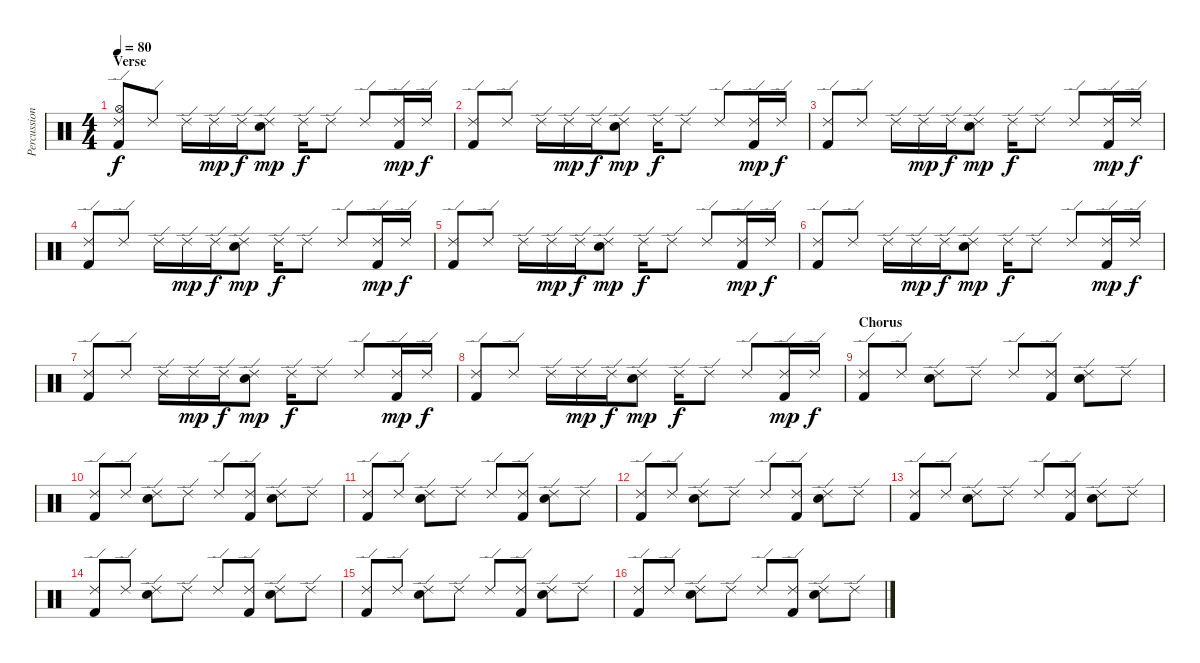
\track ("Percussion" "Percussion") {instrument percussion}
\staff {score}
\articulation defaults
\ts (4 4)
\section ("" "Verse")
\tempo 80
\clef neutral
\ks c
("Ride (edge) 2" "Hi-Hat (open)" "Kick (hit) 2").8{dy f} "Ride (edge) 2".8 "Ride (edge) 2".16 "Ride (edge) 2".16{dy mp} "Ride (edge) 2".16{dy f} ("Ride (edge) 2" "Electric Snare (hit)").8{dy mp} "Ride (edge) 2".16{dy f} "Ride (edge) 2".8 "Ride (edge) 2".8 ("Ride (edge) 2" "Kick (hit) 2").16{dy mp} "Ride (edge) 2".16{dy f} |
("Ride (edge) 2" "Kick (hit) 2").8 "Ride (edge) 2".8 "Ride (edge) 2".16 "Ride (edge) 2".16{dy mp} "Ride (edge) 2".16{dy f} ("Ride (edge) 2" "Electric Snare (hit)").8{dy mp} "Ride (edge) 2".16{dy f} "Ride (edge) 2".8 "Ride (edge) 2".8 ("Ride (edge) 2" "Kick (hit) 2").16{dy mp} "Ride (edge) 2".16{dy f} |
("Ride (edge) 2" "Kick (hit) 2").8 "Ride (edge) 2".8 "Ride (edge) 2".16 "Ride (edge) 2".16{dy mp} "Ride (edge) 2".16{dy f} ("Ride (edge) 2" "Electric Snare (hit)").8{dy mp} "Ride (edge) 2".16{dy f} "Ride (edge) 2".8 "Ride (edge) 2".8 ("Ride (edge) 2" "Kick (hit) 2").16{dy mp} "Ride (edge) 2".16{dy f} |
("Ride (edge) 2" "Kick (hit) 2").8 "Ride (edge) 2".8 "Ride (edge) 2".16 "Ride (edge) 2".16{dy mp} "Ride (edge) 2".16{dy f} ("Ride (edge) 2" "Electric Snare (hit)").8{dy mp} "Ride (edge) 2".16{dy f} "Ride (edge) 2".8 "Ride (edge) 2".8 ("Ride (edge) 2" "Kick (hit) 2").16{dy mp} "Ride (edge) 2".16{dy f} |
("Ride (edge) 2" "Kick (hit) 2").8 "Ride (edge) 2".8 "Ride (edge) 2".16 "Ride (edge) 2".16{dy mp} "Ride (edge) 2".16{dy f} ("Ride (edge) 2" "Electric Snare (hit)").8{dy mp} "Ride (edge) 2".16{dy f} "Ride (edge) 2".8 "Ride (edge) 2".8 ("Ride (edge) 2" "Kick (hit) 2").16{dy mp} "Ride (edge) 2".16{dy f} |
("Ride (edge) 2" "Kick (hit) 2").8 "Ride (edge) 2".8 "Ride (edge) 2".16 "Ride (edge) 2".16{dy mp} "Ride (edge) 2".16{dy f} ("Ride (edge) 2" "Electric Snare (hit)").8{dy mp} "Ride (edge) 2".16{dy f} "Ride (edge) 2".8 "Ride (edge) 2".8 ("Ride (edge) 2" "Kick (hit) 2").16{dy mp} "Ride (edge) 2".16{dy f} |
("Ride (edge) 2" "Kick (hit) 2").8 "Ride (edge) 2".8 "Ride (edge) 2".16 "Ride (edge) 2".16{dy mp} "Ride (edge) 2".16{dy f} ("Ride (edge) 2" "Electric Snare (hit)").8{dy mp} "Ride (edge) 2".16{dy f} "Ride (edge) 2".8 "Ride (edge) 2".8 ("Ride (edge) 2" "Kick (hit) 2").16{dy mp} "Ride (edge) 2".16{dy f} |
("Ride (edge) 2" "Kick (hit) 2").8 "Ride (edge) 2".8 "Ride (edge) 2".16 "Ride (edge) 2".16{dy mp} "Ride (edge) 2".16{dy f} ("Ride (edge) 2" "Electric Snare (hit)").8{dy mp} "Ride (edge) 2".16{dy f} "Ride (edge) 2".8 "Ride (edge) 2".8 ("Ride (edge) 2" "Kick (hit) 2").16{dy mp} "Ride (edge) 2".16{dy f} |
\section ("" "Chorus")
("Ride (edge) 2" "Kick (hit) 2").8 "Ride (edge) 2".8 ("Ride (edge) 2" "Electric Snare (hit)").8 "Ride (edge) 2".8 "Ride (edge) 2".8 ("Ride (edge) 2" "Kick (hit) 2").8 ("Ride (edge) 2" "Electric Snare (hit)").8 "Ride (edge) 2".8 |
("Ride (edge) 2" "Kick (hit) 2").8 "Ride (edge) 2".8 ("Ride (edge) 2" "Electric Snare (hit)").8 "Ride (edge) 2".8 "Ride (edge) 2".8 ("Ride (edge) 2" "Kick (hit) 2").8 ("Ride (edge) 2" "Electric Snare (hit)").8 "Ride (edge) 2".8 |
("Ride (edge) 2" "Kick (hit) 2").8 "Ride (edge) 2".8 ("Ride (edge) 2" "Electric Snare (hit)").8 "Ride (edge) 2".8 "Ride (edge) 2".8 ("Ride (edge) 2" "Kick (hit) 2").8 ("Ride (edge) 2" "Electric Snare (hit)").8 "Ride (edge) 2".8 |
("Ride (edge) 2" "Kick (hit) 2").8 "Ride (edge) 2".8 ("Ride (edge) 2" "Electric Snare (hit)").8 "Ride (edge) 2".8 "Ride (edge) 2".8 ("Ride (edge) 2" "Kick (hit) 2").8 ("Ride (edge) 2" "Electric Snare (hit)").8 "Ride (edge) 2".8 |
("Ride (edge) 2" "Kick (hit) 2").8 "Ride (edge) 2".8 ("Ride (edge) 2" "Electric Snare (hit)").8 "Ride (edge) 2".8 "Ride (edge) 2".8 ("Ride (edge) 2" "Kick (hit) 2").8 ("Ride (edge) 2" "Electric Snare (hit)").8 "Ride (edge) 2".8 |
("Ride (edge) 2" "Kick (hit) 2").8 "Ride (edge) 2".8 ("Ride (edge) 2" "Electric Snare (hit)").8 "Ride (edge) 2".8 "Ride (edge) 2".8 ("Ride (edge) 2" "Kick (hit) 2").8 ("Ride (edge) 2" "Electric Snare (hit)").8 "Ride (edge) 2".8 |
("Ride (edge) 2" "Kick (hit) 2").8 "Ride (edge) 2".8 ("Ride (edge) 2" "Electric Snare (hit)").8 "Ride (edge) 2".8 "Ride (edge) 2".8 ("Ride (edge) 2" "Kick (hit) 2").8 ("Ride (edge) 2" "Electric Snare (hit)").8 "Ride (edge) 2".8 |
("Ride (edge) 2" "Kick (hit) 2").8 "Ride (edge) 2".8 ("Ride (edge) 2" "Electric Snare (hit)").8 "Ride (edge) 2".8 "Ride (edge) 2".8 ("Ride (edge) 2" "Kick (hit) 2").8 ("Ride (edge) 2" "Electric Snare (hit)").8 "Ride (edge) 2".8
